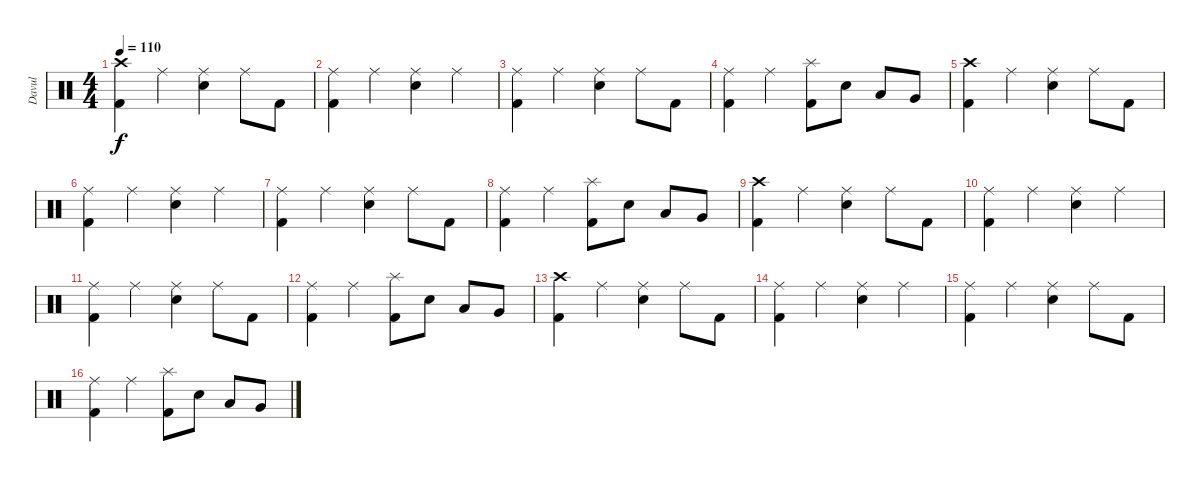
\track ("Davul" "Davul") {instrument percussion}
\staff {score}
\articulation defaults
\ts (4 4)
\tempo 110
\clef neutral
\ks c
("Crash high (hit)" "Kick (hit) 2").4{dy f} "Ride (middle)".4 ("Ride (middle)" "Electric Snare (hit)").4 "Ride (middle)".8 "Kick (hit) 2".8 |
("Ride (middle)" "Kick (hit) 2").4 "Ride (middle)".4 ("Ride (middle)" "Electric Snare (hit)").4 "Ride (middle)".4 |
("Ride (middle)" "Kick (hit) 2").4 "Ride (middle)".4 ("Ride (middle)" "Electric Snare (hit)").4 "Ride (middle)".8 "Kick (hit) 2".8 |
("Ride (middle)" "Kick (hit) 2").4 "Ride (middle)".4 ("Splash (hit)" "Kick (hit) 2").8 "Electric Snare (hit)".8 "Low Tom (hit)".8 "Very Low Tom (hit)".8 |
("Crash high (hit)" "Kick (hit) 2").4 "Ride (middle)".4 ("Ride (middle)" "Electric Snare (hit)").4 "Ride (middle)".8 "Kick (hit) 2".8 |
("Ride (middle)" "Kick (hit) 2").4 "Ride (middle)".4 ("Ride (middle)" "Electric Snare (hit)").4 "Ride (middle)".4 |
("Ride (middle)" "Kick (hit) 2").4 "Ride (middle)".4 ("Ride (middle)" "Electric Snare (hit)").4 "Ride (middle)".8 "Kick (hit) 2".8 |
("Ride (middle)" "Kick (hit) 2").4 "Ride (middle)".4 ("Splash (hit)" "Kick (hit) 2").8 "Electric Snare (hit)".8 "Low Tom (hit)".8 "Very Low Tom (hit)".8 |
("Crash high (hit)" "Kick (hit) 2").4 "Ride (middle)".4 ("Ride (middle)" "Electric Snare (hit)").4 "Ride (middle)".8 "Kick (hit) 2".8 |
("Ride (middle)" "Kick (hit) 2").4 "Ride (middle)".4 ("Ride (middle)" "Electric Snare (hit)").4 "Ride (middle)".4 |
("Ride (middle)" "Kick (hit) 2").4 "Ride (middle)".4 ("Ride (middle)" "Electric Snare (hit)").4 "Ride (middle)".8 "Kick (hit) 2".8 |
("Ride (middle)" "Kick (hit) 2").4 "Ride (middle)".4 ("Splash (hit)" "Kick (hit) 2").8 "Electric Snare (hit)".8 "Low Tom (hit)".8 "Very Low Tom (hit)".8 |
("Crash high (hit)" "Kick (hit) 2").4 "Ride (middle)".4 ("Ride (middle)" "Electric Snare (hit)").4 "Ride (middle)".8 "Kick (hit) 2".8 |
("Ride (middle)" "Kick (hit) 2").4 "Ride (middle)".4 ("Ride (middle)" "Electric Snare (hit)").4 "Ride (middle)".4 |
("Ride (middle)" "Kick (hit) 2").4 "Ride (middle)".4 ("Ride (middle)" "Electric Snare (hit)").4 "Ride (middle)".8 "Kick (hit) 2".8 |
("Ride (middle)" "Kick (hit) 2").4 "Ride (middle)".4 ("Splash (hit)" "Kick (hit) 2").8 "Electric Snare (hit)".8 "Low Tom (hit)".8 "Very Low Tom (hit)".8
